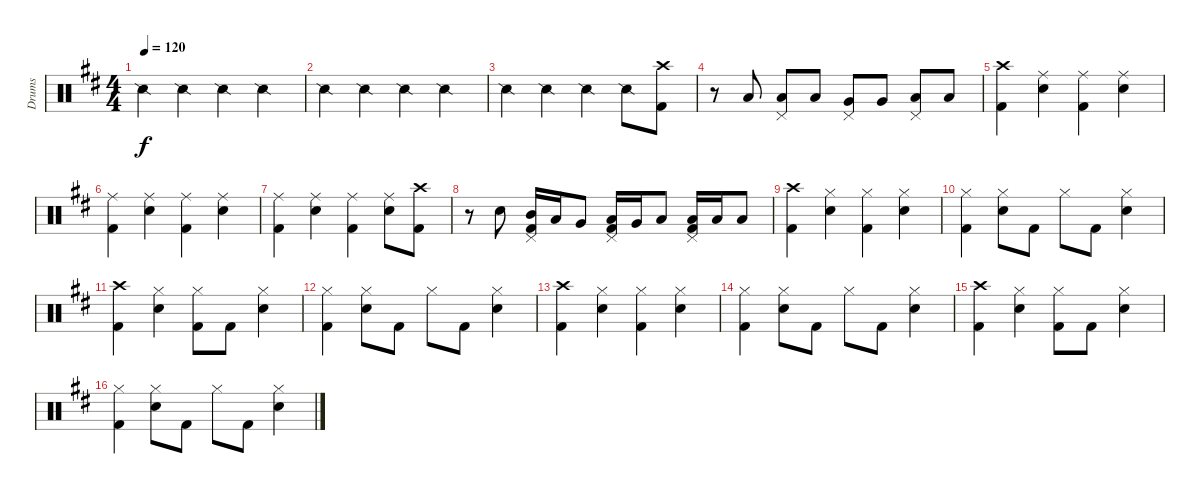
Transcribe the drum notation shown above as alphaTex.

\track ("Drums" "Drums") {instrument percussion}
\staff {score}
\articulation defaults
\ts (4 4)
\tempo 120
\clef neutral
\ks bminor "Snare (side stick) 2".4{dy f} "Snare (side stick) 2".4 "Snare (side stick) 2".4 "Snare (side stick) 2".4
|
"Snare (side stick) 2".4 "Snare (side stick) 2".4 "Snare (side stick) 2".4 "Snare (side stick) 2".4 |
"Snare (side stick) 2".4 "Snare (side stick) 2".4 "Snare (side stick) 2".4 "Snare (side stick) 2".8 ("Crash high (hit)" "Kick (hit) 2").8 |
r.8 "Low Tom (hit)".8 ("Pedal Hi-Hat (hit)" "Low Tom (hit)").8 "Low Tom (hit)".8 ("Pedal Hi-Hat (hit)" "Very Low Tom (hit)").8 "Very Low Tom (hit)".8 ("Pedal Hi-Hat (hit)" "Low Floor Tom (hit)").8 "Low Floor Tom (hit)".8 |
("Crash high (hit)" "Kick (hit) 2").4 ("Ride (middle)" "Electric Snare (hit)").4 ("Ride (middle)" "Kick (hit) 2").4 ("Ride (middle)" "Electric Snare (hit)").4 |
("Ride (middle)" "Kick (hit) 2").4 ("Ride (middle)" "Electric Snare (hit)").4 ("Ride (middle)" "Kick (hit) 2").4 ("Ride (middle)" "Electric Snare (hit)").4 |
("Ride (middle)" "Kick (hit) 2").4 ("Ride (middle)" "Electric Snare (hit)").4 ("Ride (middle)" "Kick (hit) 2").4 ("Ride (middle)" "Electric Snare (hit)").8 ("Crash high (hit)" "Kick (hit) 2").8 |
r.8 "Electric Snare (hit)".8 ("Pedal Hi-Hat (hit)" "Mid Tom (hit)" "Kick (hit) 2").16 "Low Tom (hit)".16 "Very Low Tom (hit)".8 ("Pedal Hi-Hat (hit)" "Low Tom (hit)" "Kick (hit) 2").16 "Very Low Tom (hit)".16 "Low Floor Tom (hit)".8 ("Pedal Hi-Hat (hit)" "Low Floor Tom (hit)" "Kick (hit) 2").16 "Low Floor Tom (hit)".16 "Low Floor Tom (hit)".8 |
("Crash high (hit)" "Kick (hit) 2").4 ("Hi-Hat (closed)" "Electric Snare (hit)").4 ("Hi-Hat (closed)" "Kick (hit) 2").4 ("Hi-Hat (closed)" "Electric Snare (hit)").4 |
("Hi-Hat (closed)" "Kick (hit) 2").4 ("Hi-Hat (closed)" "Electric Snare (hit)").8 "Kick (hit) 2".8 "Hi-Hat (closed)".8 "Kick (hit) 2".8 ("Hi-Hat (closed)" "Electric Snare (hit)").4 |
("Crash high (hit)" "Kick (hit) 2").4 ("Hi-Hat (closed)" "Electric Snare (hit)").4 ("Hi-Hat (closed)" "Kick (hit) 2").8 "Kick (hit) 2".8 ("Hi-Hat (closed)" "Electric Snare (hit)").4 |
("Hi-Hat (closed)" "Kick (hit) 2").4 ("Hi-Hat (closed)" "Electric Snare (hit)").8 "Kick (hit) 2".8 "Hi-Hat (closed)".8 "Kick (hit) 2".8 ("Hi-Hat (closed)" "Electric Snare (hit)").4 |
("Crash high (hit)" "Kick (hit) 2").4 ("Hi-Hat (closed)" "Electric Snare (hit)").4 ("Hi-Hat (closed)" "Kick (hit) 2").4 ("Hi-Hat (closed)" "Electric Snare (hit)").4 |
("Hi-Hat (closed)" "Kick (hit) 2").4 ("Hi-Hat (closed)" "Electric Snare (hit)").8 "Kick (hit) 2".8 "Hi-Hat (closed)".8 "Kick (hit) 2".8 ("Hi-Hat (closed)" "Electric Snare (hit)").4 |
("Crash high (hit)" "Kick (hit) 2").4 ("Hi-Hat (closed)" "Electric Snare (hit)").4 ("Hi-Hat (closed)" "Kick (hit) 2").8 "Kick (hit) 2".8 ("Hi-Hat (closed)" "Electric Snare (hit)").4 |
("Hi-Hat (closed)" "Kick (hit) 2").4 ("Hi-Hat (closed)" "Electric Snare (hit)").8 "Kick (hit) 2".8 "Hi-Hat (closed)".8 "Kick (hit) 2".8 ("Hi-Hat (closed)" "Electric Snare (hit)").4
